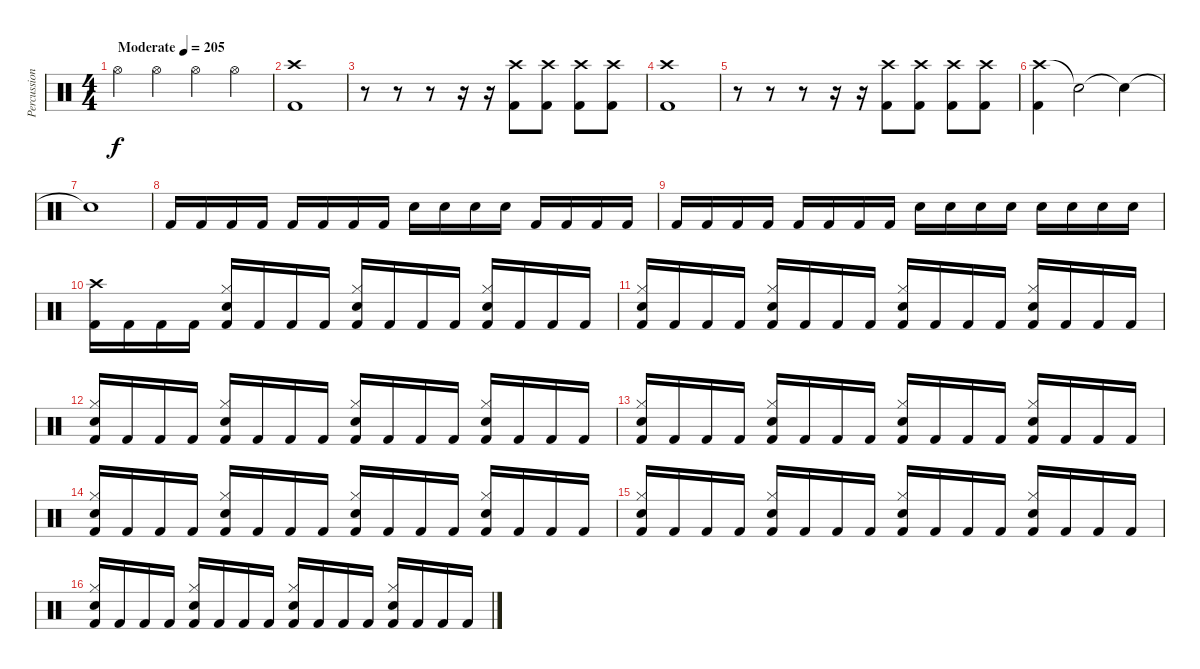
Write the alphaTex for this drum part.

\track ("Percussion" "Percussion") {instrument percussion}
\staff {score}
\articulation defaults
\ts (4 4)
\tempo (205 "Moderate")
\clef neutral
\ks c "Hi-Hat (open)".4{dy f} "Hi-Hat (open)".4 "Hi-Hat (open)".4 "Hi-Hat (open)".4
|
("Crash high (hit)" "Kick (hit) 2").1 |
r.8 r.8 r.8 r.16 r.16 ("Crash high (hit)" "Kick (hit) 2").8 ("Crash high (hit)" "Kick (hit) 2").8 ("Crash high (hit)" "Kick (hit) 2").8 ("Crash high (hit)" "Kick (hit) 2").8 |
("Crash high (hit)" "Kick (hit) 2").1 |
r.8 r.8 r.8 r.16 r.16 ("Crash high (hit)" "Kick (hit) 2").8 ("Crash high (hit)" "Kick (hit) 2").8 ("Crash high (hit)" "Kick (hit) 2").8 ("Crash high (hit)" "Kick (hit) 2").8 |
("Crash high (hit)" "Kick (hit) 2").4 "Snare (hit)"{t}.2 "Snare (hit)"{t}.4 |
"Snare (hit)"{t}.1 |
"Kick (hit) 2".16 "Kick (hit) 2".16 "Kick (hit) 2".16 "Kick (hit) 2".16 "Kick (hit) 2".16 "Kick (hit) 2".16 "Kick (hit) 2".16 "Kick (hit) 2".16 "Snare (hit) 2".16 "Snare (hit) 2".16 "Snare (hit) 2".16 "Snare (hit) 2".16 "Kick (hit) 2".16 "Kick (hit) 2".16 "Kick (hit) 2".16 "Kick (hit) 2".16 |
"Kick (hit) 2".16 "Kick (hit) 2".16 "Kick (hit) 2".16 "Kick (hit) 2".16 "Kick (hit) 2".16 "Kick (hit) 2".16 "Kick (hit) 2".16 "Kick (hit) 2".16 "Snare (hit) 2".16 "Snare (hit) 2".16 "Snare (hit) 2".16 "Snare (hit) 2".16 "Snare (hit) 2".16 "Snare (hit) 2".16 "Snare (hit) 2".16 "Snare (hit) 2".16 |
("Crash high (hit)" "Kick (hit) 2").16 "Kick (hit) 2".16 "Kick (hit) 2".16 "Kick (hit) 2".16 ("Hi-Hat (closed)" "Electric Snare (hit)" "Kick (hit) 2").16 "Kick (hit) 2".16 "Kick (hit) 2".16 "Kick (hit) 2".16 ("Hi-Hat (closed)" "Electric Snare (hit)" "Kick (hit) 2").16 "Kick (hit) 2".16 "Kick (hit) 2".16 "Kick (hit) 2".16 ("Hi-Hat (closed)" "Electric Snare (hit)" "Kick (hit) 2").16 "Kick (hit) 2".16 "Kick (hit) 2".16 "Kick (hit) 2".16 |
("Hi-Hat (closed)" "Electric Snare (hit)" "Kick (hit) 2").16 "Kick (hit) 2".16 "Kick (hit) 2".16 "Kick (hit) 2".16 ("Hi-Hat (closed)" "Electric Snare (hit)" "Kick (hit) 2").16 "Kick (hit) 2".16 "Kick (hit) 2".16 "Kick (hit) 2".16 ("Hi-Hat (closed)" "Electric Snare (hit)" "Kick (hit) 2").16 "Kick (hit) 2".16 "Kick (hit) 2".16 "Kick (hit) 2".16 ("Hi-Hat (closed)" "Electric Snare (hit)" "Kick (hit) 2").16 "Kick (hit) 2".16 "Kick (hit) 2".16 "Kick (hit) 2".16 |
("Hi-Hat (closed)" "Electric Snare (hit)" "Kick (hit) 2").16 "Kick (hit) 2".16 "Kick (hit) 2".16 "Kick (hit) 2".16 ("Hi-Hat (closed)" "Electric Snare (hit)" "Kick (hit) 2").16 "Kick (hit) 2".16 "Kick (hit) 2".16 "Kick (hit) 2".16 ("Hi-Hat (closed)" "Electric Snare (hit)" "Kick (hit) 2").16 "Kick (hit) 2".16 "Kick (hit) 2".16 "Kick (hit) 2".16 ("Hi-Hat (closed)" "Electric Snare (hit)" "Kick (hit) 2").16 "Kick (hit) 2".16 "Kick (hit) 2".16 "Kick (hit) 2".16 |
("Hi-Hat (closed)" "Electric Snare (hit)" "Kick (hit) 2").16 "Kick (hit) 2".16 "Kick (hit) 2".16 "Kick (hit) 2".16 ("Hi-Hat (closed)" "Electric Snare (hit)" "Kick (hit) 2").16 "Kick (hit) 2".16 "Kick (hit) 2".16 "Kick (hit) 2".16 ("Hi-Hat (closed)" "Electric Snare (hit)" "Kick (hit) 2").16 "Kick (hit) 2".16 "Kick (hit) 2".16 "Kick (hit) 2".16 ("Hi-Hat (closed)" "Electric Snare (hit)" "Kick (hit) 2").16 "Kick (hit) 2".16 "Kick (hit) 2".16 "Kick (hit) 2".16 |
("Hi-Hat (closed)" "Electric Snare (hit)" "Kick (hit) 2").16 "Kick (hit) 2".16 "Kick (hit) 2".16 "Kick (hit) 2".16 ("Hi-Hat (closed)" "Electric Snare (hit)" "Kick (hit) 2").16 "Kick (hit) 2".16 "Kick (hit) 2".16 "Kick (hit) 2".16 ("Hi-Hat (closed)" "Electric Snare (hit)" "Kick (hit) 2").16 "Kick (hit) 2".16 "Kick (hit) 2".16 "Kick (hit) 2".16 ("Hi-Hat (closed)" "Electric Snare (hit)" "Kick (hit) 2").16 "Kick (hit) 2".16 "Kick (hit) 2".16 "Kick (hit) 2".16 |
("Hi-Hat (closed)" "Electric Snare (hit)" "Kick (hit) 2").16 "Kick (hit) 2".16 "Kick (hit) 2".16 "Kick (hit) 2".16 ("Hi-Hat (closed)" "Electric Snare (hit)" "Kick (hit) 2").16 "Kick (hit) 2".16 "Kick (hit) 2".16 "Kick (hit) 2".16 ("Hi-Hat (closed)" "Electric Snare (hit)" "Kick (hit) 2").16 "Kick (hit) 2".16 "Kick (hit) 2".16 "Kick (hit) 2".16 ("Hi-Hat (closed)" "Electric Snare (hit)" "Kick (hit) 2").16 "Kick (hit) 2".16 "Kick (hit) 2".16 "Kick (hit) 2".16 |
("Hi-Hat (closed)" "Electric Snare (hit)" "Kick (hit) 2").16 "Kick (hit) 2".16 "Kick (hit) 2".16 "Kick (hit) 2".16 ("Hi-Hat (closed)" "Electric Snare (hit)" "Kick (hit) 2").16 "Kick (hit) 2".16 "Kick (hit) 2".16 "Kick (hit) 2".16 ("Hi-Hat (closed)" "Electric Snare (hit)" "Kick (hit) 2").16 "Kick (hit) 2".16 "Kick (hit) 2".16 "Kick (hit) 2".16 ("Hi-Hat (closed)" "Electric Snare (hit)" "Kick (hit) 2").16 "Kick (hit) 2".16 "Kick (hit) 2".16 "Kick (hit) 2".16
